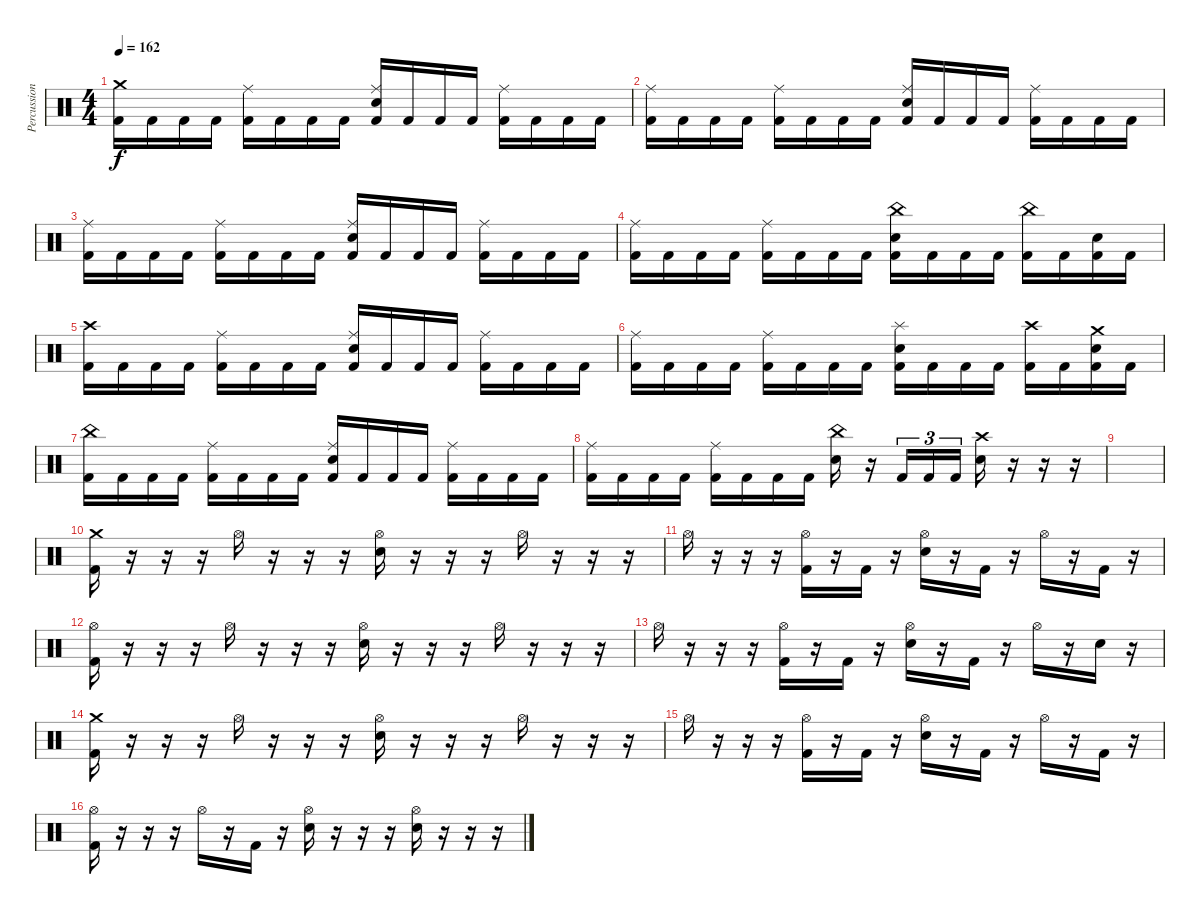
\track ("Percussion" "Percussion") {instrument percussion}
\staff {score}
\articulation defaults
\ts (4 4)
\tempo 162
\clef neutral
\ks c
("Crash medium (hit)" "Kick (hit) 2").16{dy f} "Kick (hit) 2".16 "Kick (hit) 2".16 "Kick (hit) 2".16 ("Ride (middle)" "Kick (hit) 2").16 "Kick (hit) 2".16 "Kick (hit) 2".16 "Kick (hit) 2".16 ("Ride (middle)" "Electric Snare (hit)" "Kick (hit) 2").16 "Kick (hit) 2".16 "Kick (hit) 2".16 "Kick (hit) 2".16 ("Ride (middle)" "Kick (hit) 2").16 "Kick (hit) 2".16 "Kick (hit) 2".16 "Kick (hit) 2".16 |
("Ride (middle)" "Kick (hit) 2").16 "Kick (hit) 2".16 "Kick (hit) 2".16 "Kick (hit) 2".16 ("Ride (middle)" "Kick (hit) 2").16 "Kick (hit) 2".16 "Kick (hit) 2".16 "Kick (hit) 2".16 ("Ride (middle)" "Electric Snare (hit)" "Kick (hit) 2").16 "Kick (hit) 2".16 "Kick (hit) 2".16 "Kick (hit) 2".16 ("Ride (middle)" "Kick (hit) 2").16 "Kick (hit) 2".16 "Kick (hit) 2".16 "Kick (hit) 2".16 |
("Ride (middle)" "Kick (hit) 2").16 "Kick (hit) 2".16 "Kick (hit) 2".16 "Kick (hit) 2".16 ("Ride (middle)" "Kick (hit) 2").16 "Kick (hit) 2".16 "Kick (hit) 2".16 "Kick (hit) 2".16 ("Ride (middle)" "Electric Snare (hit)" "Kick (hit) 2").16 "Kick (hit) 2".16 "Kick (hit) 2".16 "Kick (hit) 2".16 ("Ride (middle)" "Kick (hit) 2").16 "Kick (hit) 2".16 "Kick (hit) 2".16 "Kick (hit) 2".16 |
("Ride (middle)" "Kick (hit) 2").16 "Kick (hit) 2".16 "Kick (hit) 2".16 "Kick (hit) 2".16 ("Ride (middle)" "Kick (hit) 2").16 "Kick (hit) 2".16 "Kick (hit) 2".16 "Kick (hit) 2".16 ("China (hit)" "Electric Snare (hit)" "Kick (hit) 2").16 "Kick (hit) 2".16 "Kick (hit) 2".16 "Kick (hit) 2".16 ("China (hit)" "Kick (hit) 2").16 "Kick (hit) 2".16 ("Electric Snare (hit)" "Kick (hit) 2").16 "Kick (hit) 2".16 |
("Crash high (hit)" "Kick (hit) 2").16 "Kick (hit) 2".16 "Kick (hit) 2".16 "Kick (hit) 2".16 ("Ride (middle)" "Kick (hit) 2").16 "Kick (hit) 2".16 "Kick (hit) 2".16 "Kick (hit) 2".16 ("Ride (middle)" "Electric Snare (hit)" "Kick (hit) 2").16 "Kick (hit) 2".16 "Kick (hit) 2".16 "Kick (hit) 2".16 ("Ride (middle)" "Kick (hit) 2").16 "Kick (hit) 2".16 "Kick (hit) 2".16 "Kick (hit) 2".16 |
("Ride (middle)" "Kick (hit) 2").16 "Kick (hit) 2".16 "Kick (hit) 2".16 "Kick (hit) 2".16 ("Ride (middle)" "Kick (hit) 2").16 "Kick (hit) 2".16 "Kick (hit) 2".16 "Kick (hit) 2".16 ("Splash (hit)" "Electric Snare (hit)" "Kick (hit) 2").16 "Kick (hit) 2".16 "Kick (hit) 2".16 "Kick (hit) 2".16 ("Crash high (hit)" "Kick (hit) 2").16 "Kick (hit) 2".16 ("Crash medium (hit)" "Electric Snare (hit)" "Kick (hit) 2").16 "Kick (hit) 2".16 |
("China (hit)" "Kick (hit) 2").16 "Kick (hit) 2".16 "Kick (hit) 2".16 "Kick (hit) 2".16 ("Ride (middle)" "Kick (hit) 2").16 "Kick (hit) 2".16 "Kick (hit) 2".16 "Kick (hit) 2".16 ("Ride (middle)" "Electric Snare (hit)" "Kick (hit) 2").16 "Kick (hit) 2".16 "Kick (hit) 2".16 "Kick (hit) 2".16 ("Ride (middle)" "Kick (hit) 2").16 "Kick (hit) 2".16 "Kick (hit) 2".16 "Kick (hit) 2".16 |
("Ride (middle)" "Kick (hit) 2").16 "Kick (hit) 2".16 "Kick (hit) 2".16 "Kick (hit) 2".16 ("Ride (middle)" "Kick (hit) 2").16 "Kick (hit) 2".16 "Kick (hit) 2".16 "Kick (hit) 2".16 ("China (hit)" "Electric Snare (hit)").16 r.16 "Kick (hit) 2".16{tu (3 2)} "Kick (hit) 2".16{tu (3 2)} "Kick (hit) 2".16{tu (3 2)} ("Crash high (hit)" "Electric Snare (hit)").16 r.16 r.16 r.16 |
|
("Crash medium (hit)" "Kick (hit) 2").16 r.16 r.16 r.16 "Hi-Hat (open)".16 r.16 r.16 r.16 ("Hi-Hat (open)" "Electric Snare (hit)").16 r.16 r.16 r.16 "Hi-Hat (open)".16 r.16 r.16 r.16 |
"Hi-Hat (open)".16 r.16 r.16 r.16 ("Hi-Hat (open)" "Kick (hit) 2").16 r.16 "Kick (hit) 2".16 r.16 ("Hi-Hat (open)" "Electric Snare (hit)").16 r.16 "Kick (hit) 2".16 r.16 "Hi-Hat (open)".16 r.16 "Kick (hit) 2".16 r.16 |
("Hi-Hat (open)" "Kick (hit) 2").16 r.16 r.16 r.16 "Hi-Hat (open)".16 r.16 r.16 r.16 ("Hi-Hat (open)" "Electric Snare (hit)").16 r.16 r.16 r.16 "Hi-Hat (open)".16 r.16 r.16 r.16 |
"Hi-Hat (open)".16 r.16 r.16 r.16 ("Hi-Hat (open)" "Kick (hit) 2").16 r.16 "Kick (hit) 2".16 r.16 ("Hi-Hat (open)" "Electric Snare (hit)").16 r.16 "Kick (hit) 2".16 r.16 "Hi-Hat (open)".16 r.16 "Electric Snare (hit)".16 r.16 |
("Crash medium (hit)" "Kick (hit) 2").16 r.16 r.16 r.16 "Hi-Hat (open)".16 r.16 r.16 r.16 ("Hi-Hat (open)" "Electric Snare (hit)").16 r.16 r.16 r.16 "Hi-Hat (open)".16 r.16 r.16 r.16 |
"Hi-Hat (open)".16 r.16 r.16 r.16 ("Hi-Hat (open)" "Kick (hit) 2").16 r.16 "Kick (hit) 2".16 r.16 ("Hi-Hat (open)" "Electric Snare (hit)").16 r.16 "Kick (hit) 2".16 r.16 "Hi-Hat (open)".16 r.16 "Kick (hit) 2".16 r.16 |
("Hi-Hat (open)" "Kick (hit) 2").16 r.16 r.16 r.16 "Hi-Hat (open)".16 r.16 "Kick (hit) 2".16 r.16 ("Hi-Hat (open)" "Electric Snare (hit)").16 r.16 r.16 r.16 ("Hi-Hat (open)" "Electric Snare (hit)").16 r.16 r.16 r.16
